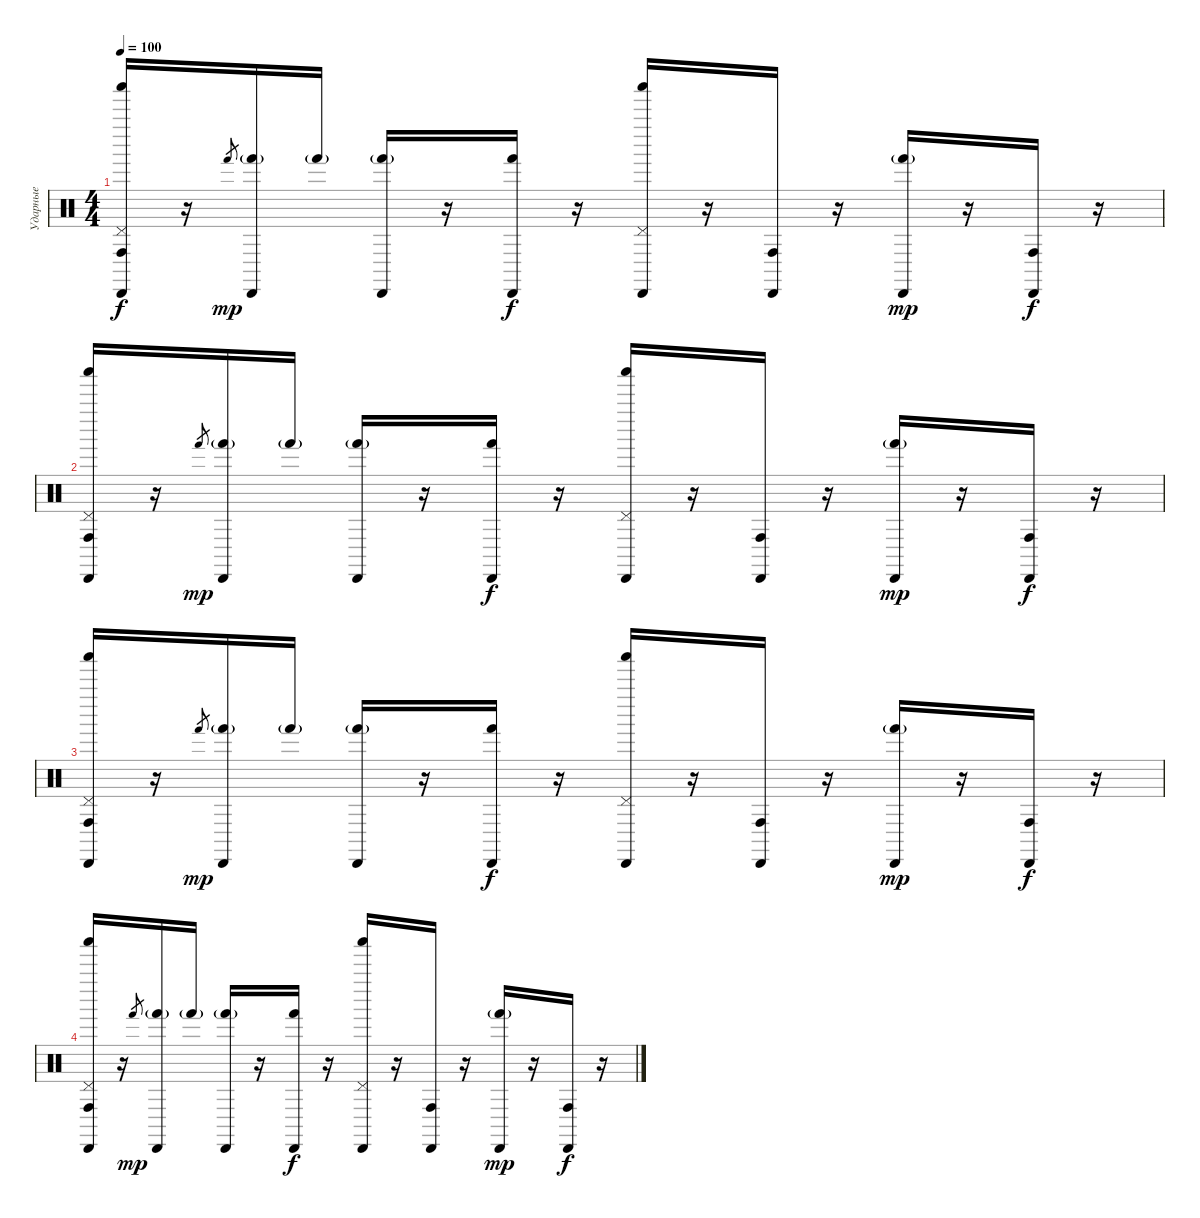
\track ("Ударные" "Ударные") {instrument percussion}
\staff {score}
\articulation defaults
\ts (4 4)
\tempo 100
\clef neutral
\ks c
("Pedal Hi-Hat (hit)" "Shaker (hit)" "Conga high (hit)" "Cabasa (hit)").16{dy f} r.16 "Hand (hit)".8{gr dy mp} ("Hand (hit)"{g} "Cabasa (hit)").16 "Hand (hit)"{g}.16 ("Hand (hit)"{g} "Cabasa (hit)").16 r.16 ("Hand (hit)" "Cabasa (hit)").16{dy f} r.16 ("Pedal Hi-Hat (hit)" "Shaker (hit)" "Cabasa (hit)").16 r.16 ("Conga high (hit)" "Cabasa (hit)").16 r.16 ("Hand (hit)"{g} "Cabasa (hit)").16{dy mp} r.16 ("Conga high (hit)" "Cabasa (hit)").16{dy f} r.16 |
("Pedal Hi-Hat (hit)" "Shaker (hit)" "Conga high (hit)" "Cabasa (hit)").16 r.16 "Hand (hit)".8{gr dy mp} ("Hand (hit)"{g} "Cabasa (hit)").16 "Hand (hit)"{g}.16 ("Hand (hit)"{g} "Cabasa (hit)").16 r.16 ("Hand (hit)" "Cabasa (hit)").16{dy f} r.16 ("Pedal Hi-Hat (hit)" "Shaker (hit)" "Cabasa (hit)").16 r.16 ("Conga high (hit)" "Cabasa (hit)").16 r.16 ("Hand (hit)"{g} "Cabasa (hit)").16{dy mp} r.16 ("Conga high (hit)" "Cabasa (hit)").16{dy f} r.16 |
("Pedal Hi-Hat (hit)" "Shaker (hit)" "Conga high (hit)" "Cabasa (hit)").16 r.16 "Hand (hit)".8{gr dy mp} ("Hand (hit)"{g} "Cabasa (hit)").16 "Hand (hit)"{g}.16 ("Hand (hit)"{g} "Cabasa (hit)").16 r.16 ("Hand (hit)" "Cabasa (hit)").16{dy f} r.16 ("Pedal Hi-Hat (hit)" "Shaker (hit)" "Cabasa (hit)").16 r.16 ("Conga high (hit)" "Cabasa (hit)").16 r.16 ("Hand (hit)"{g} "Cabasa (hit)").16{dy mp} r.16 ("Conga high (hit)" "Cabasa (hit)").16{dy f} r.16 |
("Pedal Hi-Hat (hit)" "Shaker (hit)" "Conga high (hit)" "Cabasa (hit)").16 r.16 "Hand (hit)".8{gr dy mp} ("Hand (hit)"{g} "Cabasa (hit)").16 "Hand (hit)"{g}.16 ("Hand (hit)"{g} "Cabasa (hit)").16 r.16 ("Hand (hit)" "Cabasa (hit)").16{dy f} r.16 ("Pedal Hi-Hat (hit)" "Shaker (hit)" "Cabasa (hit)").16 r.16 ("Conga high (hit)" "Cabasa (hit)").16 r.16 ("Hand (hit)"{g} "Cabasa (hit)").16{dy mp} r.16 ("Conga high (hit)" "Cabasa (hit)").16{dy f} r.16
